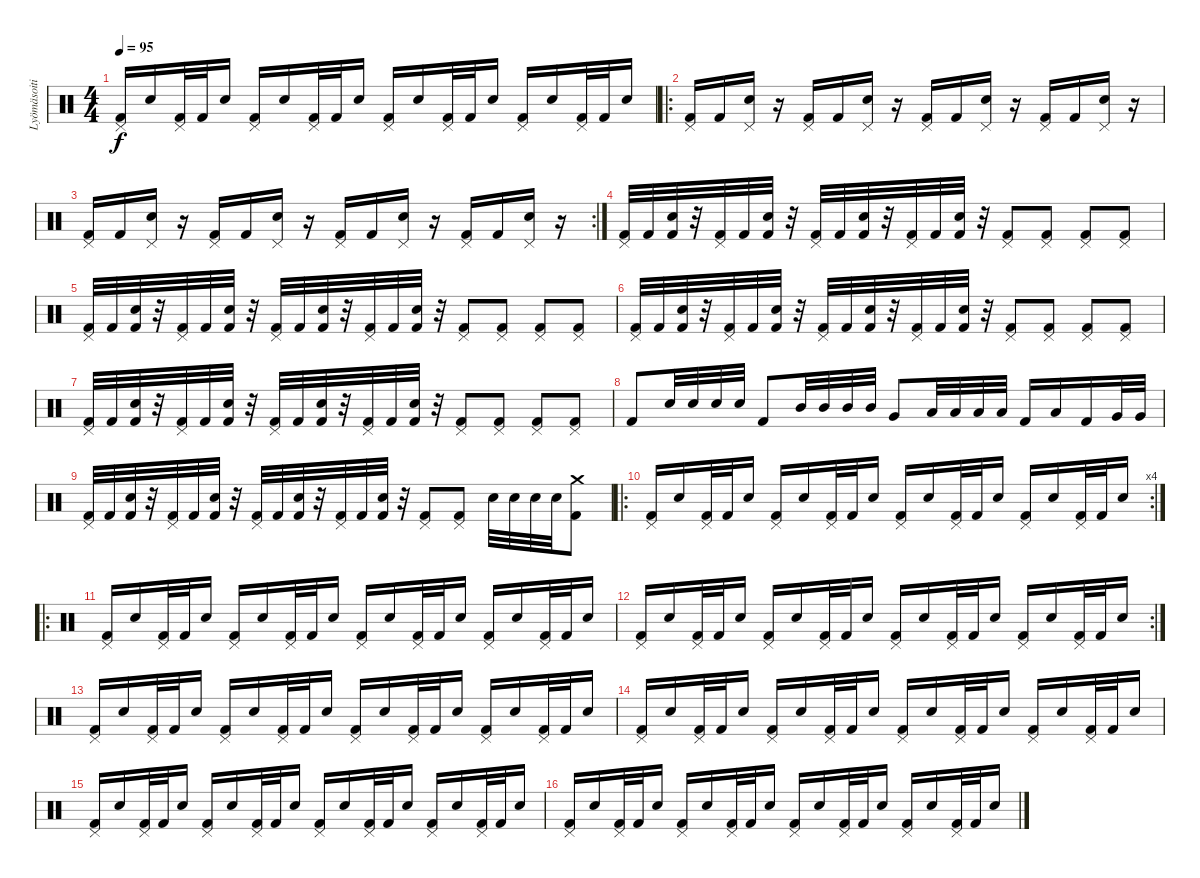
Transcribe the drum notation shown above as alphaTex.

\track ("Lyömäsoitin" "Lyömäsoiti") {instrument percussion}
\staff {score}
\articulation defaults
\ts (4 4)
\tempo 95
\clef neutral
\ks c
("Kick (hit) 2" "Pedal Hi-Hat (hit)").16{dy f} "Electric Snare (hit)".16 ("Kick (hit) 2" "Pedal Hi-Hat (hit)").32 "Kick (hit) 2".32 "Electric Snare (hit)".16 ("Kick (hit) 2" "Pedal Hi-Hat (hit)").16 "Electric Snare (hit)".16 ("Kick (hit) 2" "Pedal Hi-Hat (hit)").32 "Kick (hit) 2".32 "Electric Snare (hit)".16 ("Kick (hit) 2" "Pedal Hi-Hat (hit)").16 "Electric Snare (hit)".16 ("Kick (hit) 2" "Pedal Hi-Hat (hit)").32 "Kick (hit) 2".32 "Electric Snare (hit)".16 ("Kick (hit) 2" "Pedal Hi-Hat (hit)").16 "Electric Snare (hit)".16 ("Kick (hit) 2" "Pedal Hi-Hat (hit)").32 "Kick (hit) 2".32 "Electric Snare (hit)".16 |
\ro
("Kick (hit) 2" "Pedal Hi-Hat (hit)").16 "Kick (hit) 2".16 ("Electric Snare (hit)" "Pedal Hi-Hat (hit)").16 r.16 ("Kick (hit) 2" "Pedal Hi-Hat (hit)").16 "Kick (hit) 2".16 ("Electric Snare (hit)" "Pedal Hi-Hat (hit)").16 r.16 ("Kick (hit) 2" "Pedal Hi-Hat (hit)").16 "Kick (hit) 2".16 ("Electric Snare (hit)" "Pedal Hi-Hat (hit)").16 r.16 ("Kick (hit) 2" "Pedal Hi-Hat (hit)").16 "Kick (hit) 2".16 ("Electric Snare (hit)" "Pedal Hi-Hat (hit)").16 r.16 |
\rc 2
("Kick (hit) 2" "Pedal Hi-Hat (hit)").16 "Kick (hit) 2".16 ("Electric Snare (hit)" "Pedal Hi-Hat (hit)").16 r.16 ("Kick (hit) 2" "Pedal Hi-Hat (hit)").16 "Kick (hit) 2".16 ("Electric Snare (hit)" "Pedal Hi-Hat (hit)").16 r.16 ("Kick (hit) 2" "Pedal Hi-Hat (hit)").16 "Kick (hit) 2".16 ("Electric Snare (hit)" "Pedal Hi-Hat (hit)").16 r.16 ("Kick (hit) 2" "Pedal Hi-Hat (hit)").16 "Kick (hit) 2".16 ("Electric Snare (hit)" "Pedal Hi-Hat (hit)").16 r.16 |
("Kick (hit) 2" "Pedal Hi-Hat (hit)").32 "Kick (hit) 2".32 ("Kick (hit) 2" "Electric Snare (hit)").32 r.32 ("Kick (hit) 2" "Pedal Hi-Hat (hit)").32 "Kick (hit) 2".32 ("Kick (hit) 2" "Electric Snare (hit)").32 r.32 ("Kick (hit) 2" "Pedal Hi-Hat (hit)").32 "Kick (hit) 2".32 ("Kick (hit) 2" "Electric Snare (hit)").32 r.32 ("Kick (hit) 2" "Pedal Hi-Hat (hit)").32 "Kick (hit) 2".32 ("Kick (hit) 2" "Electric Snare (hit)").32 r.32 ("Kick (hit) 2" "Pedal Hi-Hat (hit)").8 ("Kick (hit) 2" "Pedal Hi-Hat (hit)").8 ("Kick (hit) 2" "Pedal Hi-Hat (hit)").8 ("Kick (hit) 2" "Pedal Hi-Hat (hit)").8 |
("Kick (hit) 2" "Pedal Hi-Hat (hit)").32 "Kick (hit) 2".32 ("Kick (hit) 2" "Electric Snare (hit)").32 r.32 ("Kick (hit) 2" "Pedal Hi-Hat (hit)").32 "Kick (hit) 2".32 ("Kick (hit) 2" "Electric Snare (hit)").32 r.32 ("Kick (hit) 2" "Pedal Hi-Hat (hit)").32 "Kick (hit) 2".32 ("Kick (hit) 2" "Electric Snare (hit)").32 r.32 ("Kick (hit) 2" "Pedal Hi-Hat (hit)").32 "Kick (hit) 2".32 ("Kick (hit) 2" "Electric Snare (hit)").32 r.32 ("Kick (hit) 2" "Pedal Hi-Hat (hit)").8 ("Kick (hit) 2" "Pedal Hi-Hat (hit)").8 ("Kick (hit) 2" "Pedal Hi-Hat (hit)").8 ("Kick (hit) 2" "Pedal Hi-Hat (hit)").8 |
("Kick (hit) 2" "Pedal Hi-Hat (hit)").32 "Kick (hit) 2".32 ("Kick (hit) 2" "Electric Snare (hit)").32 r.32 ("Kick (hit) 2" "Pedal Hi-Hat (hit)").32 "Kick (hit) 2".32 ("Kick (hit) 2" "Electric Snare (hit)").32 r.32 ("Kick (hit) 2" "Pedal Hi-Hat (hit)").32 "Kick (hit) 2".32 ("Kick (hit) 2" "Electric Snare (hit)").32 r.32 ("Kick (hit) 2" "Pedal Hi-Hat (hit)").32 "Kick (hit) 2".32 ("Kick (hit) 2" "Electric Snare (hit)").32 r.32 ("Kick (hit) 2" "Pedal Hi-Hat (hit)").8 ("Kick (hit) 2" "Pedal Hi-Hat (hit)").8 ("Kick (hit) 2" "Pedal Hi-Hat (hit)").8 ("Kick (hit) 2" "Pedal Hi-Hat (hit)").8 |
("Kick (hit) 2" "Pedal Hi-Hat (hit)").32 "Kick (hit) 2".32 ("Kick (hit) 2" "Electric Snare (hit)").32 r.32 ("Kick (hit) 2" "Pedal Hi-Hat (hit)").32 "Kick (hit) 2".32 ("Kick (hit) 2" "Electric Snare (hit)").32 r.32 ("Kick (hit) 2" "Pedal Hi-Hat (hit)").32 "Kick (hit) 2".32 ("Kick (hit) 2" "Electric Snare (hit)").32 r.32 ("Kick (hit) 2" "Pedal Hi-Hat (hit)").32 "Kick (hit) 2".32 ("Kick (hit) 2" "Electric Snare (hit)").32 r.32 ("Kick (hit) 2" "Pedal Hi-Hat (hit)").8 ("Kick (hit) 2" "Pedal Hi-Hat (hit)").8 ("Kick (hit) 2" "Pedal Hi-Hat (hit)").8 ("Kick (hit) 2" "Pedal Hi-Hat (hit)").8 |
"Kick (hit) 2".8 "Electric Snare (hit)".32 "Electric Snare (hit)".32 "Electric Snare (hit)".32 "Electric Snare (hit)".32 "Kick (hit) 2".8 "Mid Tom (hit)".32 "Mid Tom (hit)".32 "Mid Tom (hit)".32 "Mid Tom (hit)".32 "Very Low Tom (hit)".8 "Low Tom (hit)".32 "Low Tom (hit)".32 "Low Tom (hit)".32 "Low Tom (hit)".32 "Kick (hit) 2".16 "Low Tom (hit)".16 "Kick (hit) 2".16 "Very Low Tom (hit)".32 "Very Low Tom (hit)".32 |
("Kick (hit) 2" "Pedal Hi-Hat (hit)").32 "Kick (hit) 2".32 ("Kick (hit) 2" "Electric Snare (hit)").32 r.32 ("Kick (hit) 2" "Pedal Hi-Hat (hit)").32 "Kick (hit) 2".32 ("Kick (hit) 2" "Electric Snare (hit)").32 r.32 ("Kick (hit) 2" "Pedal Hi-Hat (hit)").32 "Kick (hit) 2".32 ("Kick (hit) 2" "Electric Snare (hit)").32 r.32 ("Kick (hit) 2" "Pedal Hi-Hat (hit)").32 "Kick (hit) 2".32 ("Kick (hit) 2" "Electric Snare (hit)").32 r.32 ("Kick (hit) 2" "Pedal Hi-Hat (hit)").8 ("Kick (hit) 2" "Pedal Hi-Hat (hit)").8 "Electric Snare (hit)".32 "Electric Snare (hit)".32 "Electric Snare (hit)".32 "Electric Snare (hit)".32 ("Kick (hit) 2" "Crash medium (hit)").8 |
\ro
\rc 4
("Kick (hit) 2" "Pedal Hi-Hat (hit)").16 "Electric Snare (hit)".16 ("Kick (hit) 2" "Pedal Hi-Hat (hit)").32 "Kick (hit) 2".32 "Electric Snare (hit)".16 ("Kick (hit) 2" "Pedal Hi-Hat (hit)").16 "Electric Snare (hit)".16 ("Kick (hit) 2" "Pedal Hi-Hat (hit)").32 "Kick (hit) 2".32 "Electric Snare (hit)".16 ("Kick (hit) 2" "Pedal Hi-Hat (hit)").16 "Electric Snare (hit)".16 ("Kick (hit) 2" "Pedal Hi-Hat (hit)").32 "Kick (hit) 2".32 "Electric Snare (hit)".16 ("Kick (hit) 2" "Pedal Hi-Hat (hit)").16 "Electric Snare (hit)".16 ("Kick (hit) 2" "Pedal Hi-Hat (hit)").32 "Kick (hit) 2".32 "Electric Snare (hit)".16 |
\ro
("Kick (hit) 2" "Pedal Hi-Hat (hit)").16 "Electric Snare (hit)".16 ("Kick (hit) 2" "Pedal Hi-Hat (hit)").32 "Kick (hit) 2".32 "Electric Snare (hit)".16 ("Kick (hit) 2" "Pedal Hi-Hat (hit)").16 "Electric Snare (hit)".16 ("Kick (hit) 2" "Pedal Hi-Hat (hit)").32 "Kick (hit) 2".32 "Electric Snare (hit)".16 ("Kick (hit) 2" "Pedal Hi-Hat (hit)").16 "Electric Snare (hit)".16 ("Kick (hit) 2" "Pedal Hi-Hat (hit)").32 "Kick (hit) 2".32 "Electric Snare (hit)".16 ("Kick (hit) 2" "Pedal Hi-Hat (hit)").16 "Electric Snare (hit)".16 ("Kick (hit) 2" "Pedal Hi-Hat (hit)").32 "Kick (hit) 2".32 "Electric Snare (hit)".16 |
\rc 2
("Kick (hit) 2" "Pedal Hi-Hat (hit)").16 "Electric Snare (hit)".16 ("Kick (hit) 2" "Pedal Hi-Hat (hit)").32 "Kick (hit) 2".32 "Electric Snare (hit)".16 ("Kick (hit) 2" "Pedal Hi-Hat (hit)").16 "Electric Snare (hit)".16 ("Kick (hit) 2" "Pedal Hi-Hat (hit)").32 "Kick (hit) 2".32 "Electric Snare (hit)".16 ("Kick (hit) 2" "Pedal Hi-Hat (hit)").16 "Electric Snare (hit)".16 ("Kick (hit) 2" "Pedal Hi-Hat (hit)").32 "Kick (hit) 2".32 "Electric Snare (hit)".16 ("Kick (hit) 2" "Pedal Hi-Hat (hit)").16 "Electric Snare (hit)".16 ("Kick (hit) 2" "Pedal Hi-Hat (hit)").32 "Kick (hit) 2".32 "Electric Snare (hit)".16 |
("Kick (hit) 2" "Pedal Hi-Hat (hit)").16 "Electric Snare (hit)".16 ("Kick (hit) 2" "Pedal Hi-Hat (hit)").32 "Kick (hit) 2".32 "Electric Snare (hit)".16 ("Kick (hit) 2" "Pedal Hi-Hat (hit)").16 "Electric Snare (hit)".16 ("Kick (hit) 2" "Pedal Hi-Hat (hit)").32 "Kick (hit) 2".32 "Electric Snare (hit)".16 ("Kick (hit) 2" "Pedal Hi-Hat (hit)").16 "Electric Snare (hit)".16 ("Kick (hit) 2" "Pedal Hi-Hat (hit)").32 "Kick (hit) 2".32 "Electric Snare (hit)".16 ("Kick (hit) 2" "Pedal Hi-Hat (hit)").16 "Electric Snare (hit)".16 ("Kick (hit) 2" "Pedal Hi-Hat (hit)").32 "Kick (hit) 2".32 "Electric Snare (hit)".16 |
("Kick (hit) 2" "Pedal Hi-Hat (hit)").16 "Electric Snare (hit)".16 ("Kick (hit) 2" "Pedal Hi-Hat (hit)").32 "Kick (hit) 2".32 "Electric Snare (hit)".16 ("Kick (hit) 2" "Pedal Hi-Hat (hit)").16 "Electric Snare (hit)".16 ("Kick (hit) 2" "Pedal Hi-Hat (hit)").32 "Kick (hit) 2".32 "Electric Snare (hit)".16 ("Kick (hit) 2" "Pedal Hi-Hat (hit)").16 "Electric Snare (hit)".16 ("Kick (hit) 2" "Pedal Hi-Hat (hit)").32 "Kick (hit) 2".32 "Electric Snare (hit)".16 ("Kick (hit) 2" "Pedal Hi-Hat (hit)").16 "Electric Snare (hit)".16 ("Kick (hit) 2" "Pedal Hi-Hat (hit)").32 "Kick (hit) 2".32 "Electric Snare (hit)".16 |
("Kick (hit) 2" "Pedal Hi-Hat (hit)").16 "Electric Snare (hit)".16 ("Kick (hit) 2" "Pedal Hi-Hat (hit)").32 "Kick (hit) 2".32 "Electric Snare (hit)".16 ("Kick (hit) 2" "Pedal Hi-Hat (hit)").16 "Electric Snare (hit)".16 ("Kick (hit) 2" "Pedal Hi-Hat (hit)").32 "Kick (hit) 2".32 "Electric Snare (hit)".16 ("Kick (hit) 2" "Pedal Hi-Hat (hit)").16 "Electric Snare (hit)".16 ("Kick (hit) 2" "Pedal Hi-Hat (hit)").32 "Kick (hit) 2".32 "Electric Snare (hit)".16 ("Kick (hit) 2" "Pedal Hi-Hat (hit)").16 "Electric Snare (hit)".16 ("Kick (hit) 2" "Pedal Hi-Hat (hit)").32 "Kick (hit) 2".32 "Electric Snare (hit)".16 |
("Kick (hit) 2" "Pedal Hi-Hat (hit)").16 "Electric Snare (hit)".16 ("Kick (hit) 2" "Pedal Hi-Hat (hit)").32 "Kick (hit) 2".32 "Electric Snare (hit)".16 ("Kick (hit) 2" "Pedal Hi-Hat (hit)").16 "Electric Snare (hit)".16 ("Kick (hit) 2" "Pedal Hi-Hat (hit)").32 "Kick (hit) 2".32 "Electric Snare (hit)".16 ("Kick (hit) 2" "Pedal Hi-Hat (hit)").16 "Electric Snare (hit)".16 ("Kick (hit) 2" "Pedal Hi-Hat (hit)").32 "Kick (hit) 2".32 "Electric Snare (hit)".16 ("Kick (hit) 2" "Pedal Hi-Hat (hit)").16 "Electric Snare (hit)".16 ("Kick (hit) 2" "Pedal Hi-Hat (hit)").32 "Kick (hit) 2".32 "Electric Snare (hit)".16
